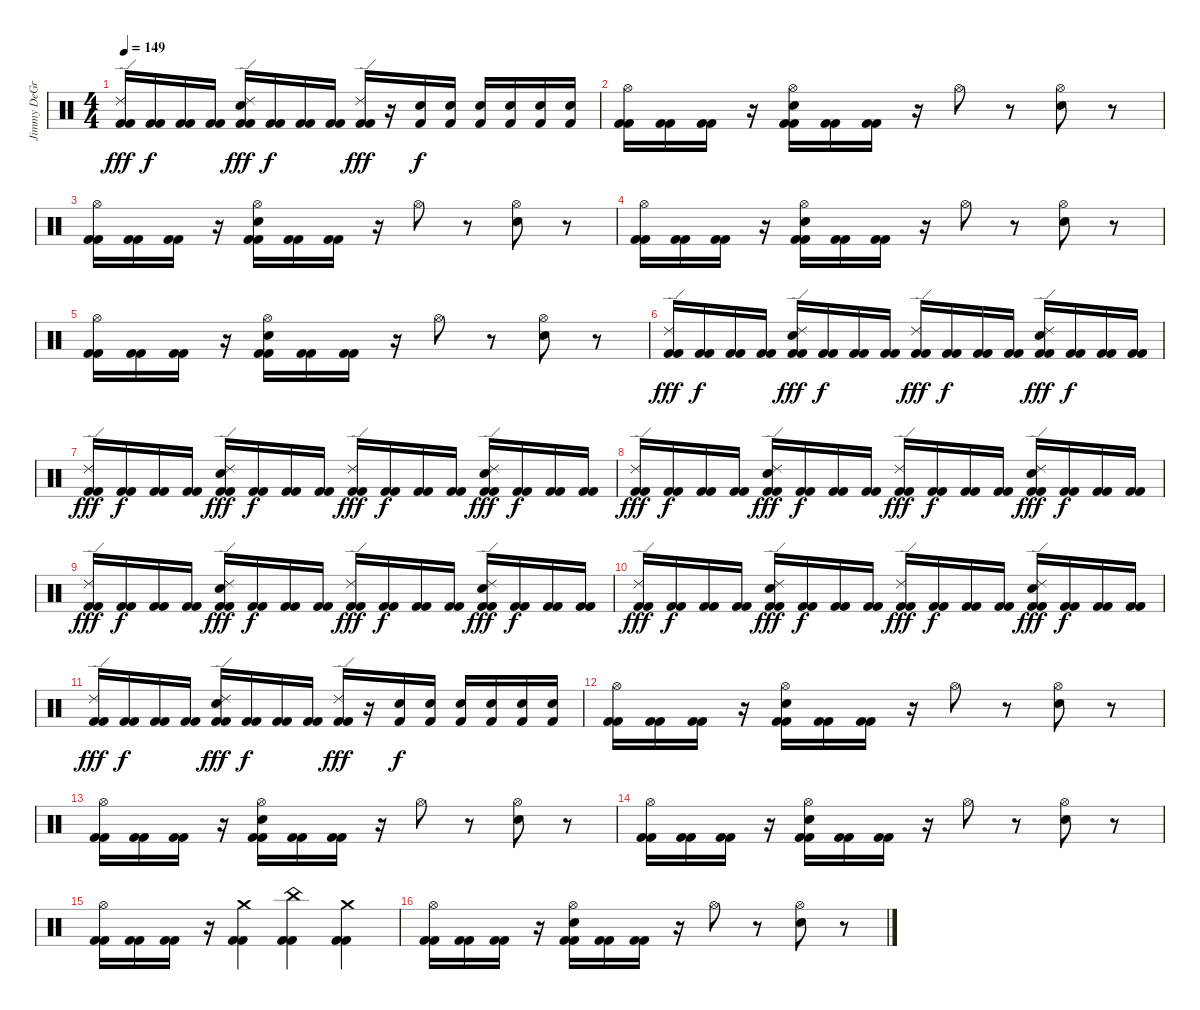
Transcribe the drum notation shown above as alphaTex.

\track ("Jimmy DeGrasso" "Jimmy DeGr") {instrument percussion}
\staff {score}
\articulation defaults
\ts (4 4)
\tempo 149
\clef neutral
\ks c
("Ride (edge) 2" "Kick (hit) 2" "Kick (hit) 2").16{dy fff} ("Kick (hit) 2" "Kick (hit) 2").16{dy f} ("Kick (hit) 2" "Kick (hit) 2").16 ("Kick (hit) 2" "Kick (hit) 2").16 ("Ride (edge) 2" "Snare (hit) 2" "Kick (hit) 2" "Kick (hit) 2").16{dy fff} ("Kick (hit) 2" "Kick (hit) 2").16{dy f} ("Kick (hit) 2" "Kick (hit) 2").16 ("Kick (hit) 2" "Kick (hit) 2").16 ("Ride (edge) 2" "Kick (hit) 2" "Kick (hit) 2").16{dy fff} r.16 ("Snare (hit) 2" "Kick (hit) 2").16{dy f} ("Snare (hit) 2" "Kick (hit) 2").16 ("Snare (hit) 2" "Kick (hit) 2").16 ("Snare (hit) 2" "Kick (hit) 2").16 ("Snare (hit) 2" "Kick (hit) 2").16 ("Snare (hit) 2" "Kick (hit) 2").16 |
("Hi-Hat (open)" "Kick (hit) 2" "Kick (hit) 2").16 ("Kick (hit) 2" "Kick (hit) 2").16 ("Kick (hit) 2" "Kick (hit) 2").16 r.16 ("Hi-Hat (open)" "Snare (hit) 2" "Kick (hit) 2" "Kick (hit) 2").16 ("Kick (hit) 2" "Kick (hit) 2").16 ("Kick (hit) 2" "Kick (hit) 2").16 r.16 "Hi-Hat (open)".8 r.8 ("Hi-Hat (open)" "Snare (hit) 2").8 r.8 |
("Hi-Hat (open)" "Kick (hit) 2" "Kick (hit) 2").16 ("Kick (hit) 2" "Kick (hit) 2").16 ("Kick (hit) 2" "Kick (hit) 2").16 r.16 ("Hi-Hat (open)" "Snare (hit) 2" "Kick (hit) 2" "Kick (hit) 2").16 ("Kick (hit) 2" "Kick (hit) 2").16 ("Kick (hit) 2" "Kick (hit) 2").16 r.16 "Hi-Hat (open)".8 r.8 ("Hi-Hat (open)" "Snare (hit) 2").8 r.8 |
("Hi-Hat (open)" "Kick (hit) 2" "Kick (hit) 2").16 ("Kick (hit) 2" "Kick (hit) 2").16 ("Kick (hit) 2" "Kick (hit) 2").16 r.16 ("Hi-Hat (open)" "Snare (hit) 2" "Kick (hit) 2" "Kick (hit) 2").16 ("Kick (hit) 2" "Kick (hit) 2").16 ("Kick (hit) 2" "Kick (hit) 2").16 r.16 "Hi-Hat (open)".8 r.8 ("Hi-Hat (open)" "Snare (hit) 2").8 r.8 |
("Hi-Hat (open)" "Kick (hit) 2" "Kick (hit) 2").16 ("Kick (hit) 2" "Kick (hit) 2").16 ("Kick (hit) 2" "Kick (hit) 2").16 r.16 ("Hi-Hat (open)" "Snare (hit) 2" "Kick (hit) 2" "Kick (hit) 2").16 ("Kick (hit) 2" "Kick (hit) 2").16 ("Kick (hit) 2" "Kick (hit) 2").16 r.16 "Hi-Hat (open)".8 r.8 ("Hi-Hat (open)" "Snare (hit) 2").8 r.8 |
("Ride (edge) 2" "Kick (hit) 2" "Kick (hit) 2").16{dy fff} ("Kick (hit) 2" "Kick (hit) 2").16{dy f} ("Kick (hit) 2" "Kick (hit) 2").16 ("Kick (hit) 2" "Kick (hit) 2").16 ("Ride (edge) 2" "Snare (hit) 2" "Kick (hit) 2" "Kick (hit) 2").16{dy fff} ("Kick (hit) 2" "Kick (hit) 2").16{dy f} ("Kick (hit) 2" "Kick (hit) 2").16 ("Kick (hit) 2" "Kick (hit) 2").16 ("Ride (edge) 2" "Kick (hit) 2" "Kick (hit) 2").16{dy fff} ("Kick (hit) 2" "Kick (hit) 2").16{dy f} ("Kick (hit) 2" "Kick (hit) 2").16 ("Kick (hit) 2" "Kick (hit) 2").16 ("Ride (edge) 2" "Snare (hit) 2" "Kick (hit) 2" "Kick (hit) 2").16{dy fff} ("Kick (hit) 2" "Kick (hit) 2").16{dy f} ("Kick (hit) 2" "Kick (hit) 2").16 ("Kick (hit) 2" "Kick (hit) 2").16 |
("Ride (edge) 2" "Kick (hit) 2" "Kick (hit) 2").16{dy fff} ("Kick (hit) 2" "Kick (hit) 2").16{dy f} ("Kick (hit) 2" "Kick (hit) 2").16 ("Kick (hit) 2" "Kick (hit) 2").16 ("Ride (edge) 2" "Snare (hit) 2" "Kick (hit) 2" "Kick (hit) 2").16{dy fff} ("Kick (hit) 2" "Kick (hit) 2").16{dy f} ("Kick (hit) 2" "Kick (hit) 2").16 ("Kick (hit) 2" "Kick (hit) 2").16 ("Ride (edge) 2" "Kick (hit) 2" "Kick (hit) 2").16{dy fff} ("Kick (hit) 2" "Kick (hit) 2").16{dy f} ("Kick (hit) 2" "Kick (hit) 2").16 ("Kick (hit) 2" "Kick (hit) 2").16 ("Ride (edge) 2" "Snare (hit) 2" "Kick (hit) 2" "Kick (hit) 2").16{dy fff} ("Kick (hit) 2" "Kick (hit) 2").16{dy f} ("Kick (hit) 2" "Kick (hit) 2").16 ("Kick (hit) 2" "Kick (hit) 2").16 |
("Ride (edge) 2" "Kick (hit) 2" "Kick (hit) 2").16{dy fff} ("Kick (hit) 2" "Kick (hit) 2").16{dy f} ("Kick (hit) 2" "Kick (hit) 2").16 ("Kick (hit) 2" "Kick (hit) 2").16 ("Ride (edge) 2" "Snare (hit) 2" "Kick (hit) 2" "Kick (hit) 2").16{dy fff} ("Kick (hit) 2" "Kick (hit) 2").16{dy f} ("Kick (hit) 2" "Kick (hit) 2").16 ("Kick (hit) 2" "Kick (hit) 2").16 ("Ride (edge) 2" "Kick (hit) 2" "Kick (hit) 2").16{dy fff} ("Kick (hit) 2" "Kick (hit) 2").16{dy f} ("Kick (hit) 2" "Kick (hit) 2").16 ("Kick (hit) 2" "Kick (hit) 2").16 ("Ride (edge) 2" "Snare (hit) 2" "Kick (hit) 2" "Kick (hit) 2").16{dy fff} ("Kick (hit) 2" "Kick (hit) 2").16{dy f} ("Kick (hit) 2" "Kick (hit) 2").16 ("Kick (hit) 2" "Kick (hit) 2").16 |
("Ride (edge) 2" "Kick (hit) 2" "Kick (hit) 2").16{dy fff} ("Kick (hit) 2" "Kick (hit) 2").16{dy f} ("Kick (hit) 2" "Kick (hit) 2").16 ("Kick (hit) 2" "Kick (hit) 2").16 ("Ride (edge) 2" "Snare (hit) 2" "Kick (hit) 2" "Kick (hit) 2").16{dy fff} ("Kick (hit) 2" "Kick (hit) 2").16{dy f} ("Kick (hit) 2" "Kick (hit) 2").16 ("Kick (hit) 2" "Kick (hit) 2").16 ("Ride (edge) 2" "Kick (hit) 2" "Kick (hit) 2").16{dy fff} ("Kick (hit) 2" "Kick (hit) 2").16{dy f} ("Kick (hit) 2" "Kick (hit) 2").16 ("Kick (hit) 2" "Kick (hit) 2").16 ("Ride (edge) 2" "Snare (hit) 2" "Kick (hit) 2" "Kick (hit) 2").16{dy fff} ("Kick (hit) 2" "Kick (hit) 2").16{dy f} ("Kick (hit) 2" "Kick (hit) 2").16 ("Kick (hit) 2" "Kick (hit) 2").16 |
("Ride (edge) 2" "Kick (hit) 2" "Kick (hit) 2").16{dy fff} ("Kick (hit) 2" "Kick (hit) 2").16{dy f} ("Kick (hit) 2" "Kick (hit) 2").16 ("Kick (hit) 2" "Kick (hit) 2").16 ("Ride (edge) 2" "Snare (hit) 2" "Kick (hit) 2" "Kick (hit) 2").16{dy fff} ("Kick (hit) 2" "Kick (hit) 2").16{dy f} ("Kick (hit) 2" "Kick (hit) 2").16 ("Kick (hit) 2" "Kick (hit) 2").16 ("Ride (edge) 2" "Kick (hit) 2" "Kick (hit) 2").16{dy fff} ("Kick (hit) 2" "Kick (hit) 2").16{dy f} ("Kick (hit) 2" "Kick (hit) 2").16 ("Kick (hit) 2" "Kick (hit) 2").16 ("Ride (edge) 2" "Snare (hit) 2" "Kick (hit) 2" "Kick (hit) 2").16{dy fff} ("Kick (hit) 2" "Kick (hit) 2").16{dy f} ("Kick (hit) 2" "Kick (hit) 2").16 ("Kick (hit) 2" "Kick (hit) 2").16 |
("Ride (edge) 2" "Kick (hit) 2" "Kick (hit) 2").16{dy fff} ("Kick (hit) 2" "Kick (hit) 2").16{dy f} ("Kick (hit) 2" "Kick (hit) 2").16 ("Kick (hit) 2" "Kick (hit) 2").16 ("Ride (edge) 2" "Snare (hit) 2" "Kick (hit) 2" "Kick (hit) 2").16{dy fff} ("Kick (hit) 2" "Kick (hit) 2").16{dy f} ("Kick (hit) 2" "Kick (hit) 2").16 ("Kick (hit) 2" "Kick (hit) 2").16 ("Ride (edge) 2" "Kick (hit) 2" "Kick (hit) 2").16{dy fff} r.16 ("Snare (hit) 2" "Kick (hit) 2").16{dy f} ("Snare (hit) 2" "Kick (hit) 2").16 ("Snare (hit) 2" "Kick (hit) 2").16 ("Snare (hit) 2" "Kick (hit) 2").16 ("Snare (hit) 2" "Kick (hit) 2").16 ("Snare (hit) 2" "Kick (hit) 2").16 |
("Hi-Hat (open)" "Kick (hit) 2" "Kick (hit) 2").16 ("Kick (hit) 2" "Kick (hit) 2").16 ("Kick (hit) 2" "Kick (hit) 2").16 r.16 ("Hi-Hat (open)" "Snare (hit) 2" "Kick (hit) 2" "Kick (hit) 2").16 ("Kick (hit) 2" "Kick (hit) 2").16 ("Kick (hit) 2" "Kick (hit) 2").16 r.16 "Hi-Hat (open)".8 r.8 ("Hi-Hat (open)" "Snare (hit) 2").8 r.8 |
("Hi-Hat (open)" "Kick (hit) 2" "Kick (hit) 2").16 ("Kick (hit) 2" "Kick (hit) 2").16 ("Kick (hit) 2" "Kick (hit) 2").16 r.16 ("Hi-Hat (open)" "Snare (hit) 2" "Kick (hit) 2" "Kick (hit) 2").16 ("Kick (hit) 2" "Kick (hit) 2").16 ("Kick (hit) 2" "Kick (hit) 2").16 r.16 "Hi-Hat (open)".8 r.8 ("Hi-Hat (open)" "Snare (hit) 2").8 r.8 |
("Hi-Hat (open)" "Kick (hit) 2" "Kick (hit) 2").16 ("Kick (hit) 2" "Kick (hit) 2").16 ("Kick (hit) 2" "Kick (hit) 2").16 r.16 ("Hi-Hat (open)" "Snare (hit) 2" "Kick (hit) 2" "Kick (hit) 2").16 ("Kick (hit) 2" "Kick (hit) 2").16 ("Kick (hit) 2" "Kick (hit) 2").16 r.16 "Hi-Hat (open)".8 r.8 ("Hi-Hat (open)" "Snare (hit) 2").8 r.8 |
("Hi-Hat (open)" "Kick (hit) 2" "Kick (hit) 2").16 ("Kick (hit) 2" "Kick (hit) 2").16 ("Kick (hit) 2" "Kick (hit) 2").16 r.16 ("Crash medium (hit)" "Kick (hit) 2" "Kick (hit) 2").4 ("China (hit)" "Kick (hit) 2" "Kick (hit) 2").4 ("Crash medium (hit)" "Kick (hit) 2" "Kick (hit) 2").4 |
("Hi-Hat (open)" "Kick (hit) 2" "Kick (hit) 2").16 ("Kick (hit) 2" "Kick (hit) 2").16 ("Kick (hit) 2" "Kick (hit) 2").16 r.16 ("Hi-Hat (open)" "Snare (hit) 2" "Kick (hit) 2" "Kick (hit) 2").16 ("Kick (hit) 2" "Kick (hit) 2").16 ("Kick (hit) 2" "Kick (hit) 2").16 r.16 "Hi-Hat (open)".8 r.8 ("Hi-Hat (open)" "Snare (hit) 2").8 r.8
